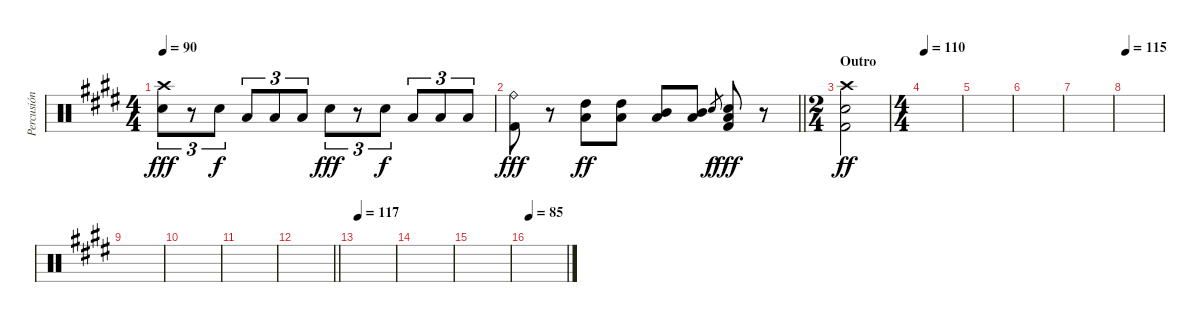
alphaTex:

\track ("Percusión" "Percusión") {instrument percussion}
\staff {score}
\articulation defaults
\ts (4 4)
\tempo 90
\clef neutral
\ks e
("Crash high (hit)" "Electric Snare (hit)").8{tu (3 2) dy fff} r.8{tu (3 2)} "Electric Snare (hit)".8{tu (3 2) dy f} "Low Tom (hit)".8{tu (3 2)} "Low Tom (hit)".8{tu (3 2)} "Low Tom (hit)".8{tu (3 2)} "Electric Snare (hit)".8{tu (3 2) dy fff} r.8{tu (3 2)} "Electric Snare (hit)".8{tu (3 2) dy f} "Low Tom (hit)".8{tu (3 2)} "Low Tom (hit)".8{tu (3 2)} "Low Tom (hit)".8{tu (3 2)} |
\barLineRight lightlight
("Ride (bell)" "Kick (hit) 2").8{dy fff} r.8 ("Low Tom (hit)" "High Tom (hit)").8{dy ff} ("Low Tom (hit)" "High Tom (hit)").8 ("Low Tom (hit)" "Mid Tom (hit)").8 ("Low Tom (hit)" "Mid Tom (hit)").8 "Electric Snare (hit)".8{gr dy f} ("Low Tom (hit)" "Electric Snare (hit)" "Kick (hit) 2").8{dy fff} r.8 |
\ts (2 4)
\section ("" "Outro")
("Crash high (hit)" "Electric Snare (hit)" "Kick (hit) 2").2{dy ff} |
\ts (4 4)
\tempo 110
|
|
|
|
\tempo 115
|
|
|
|
\barLineRight lightlight
|
\tempo 117
|
|
|
\tempo 85
